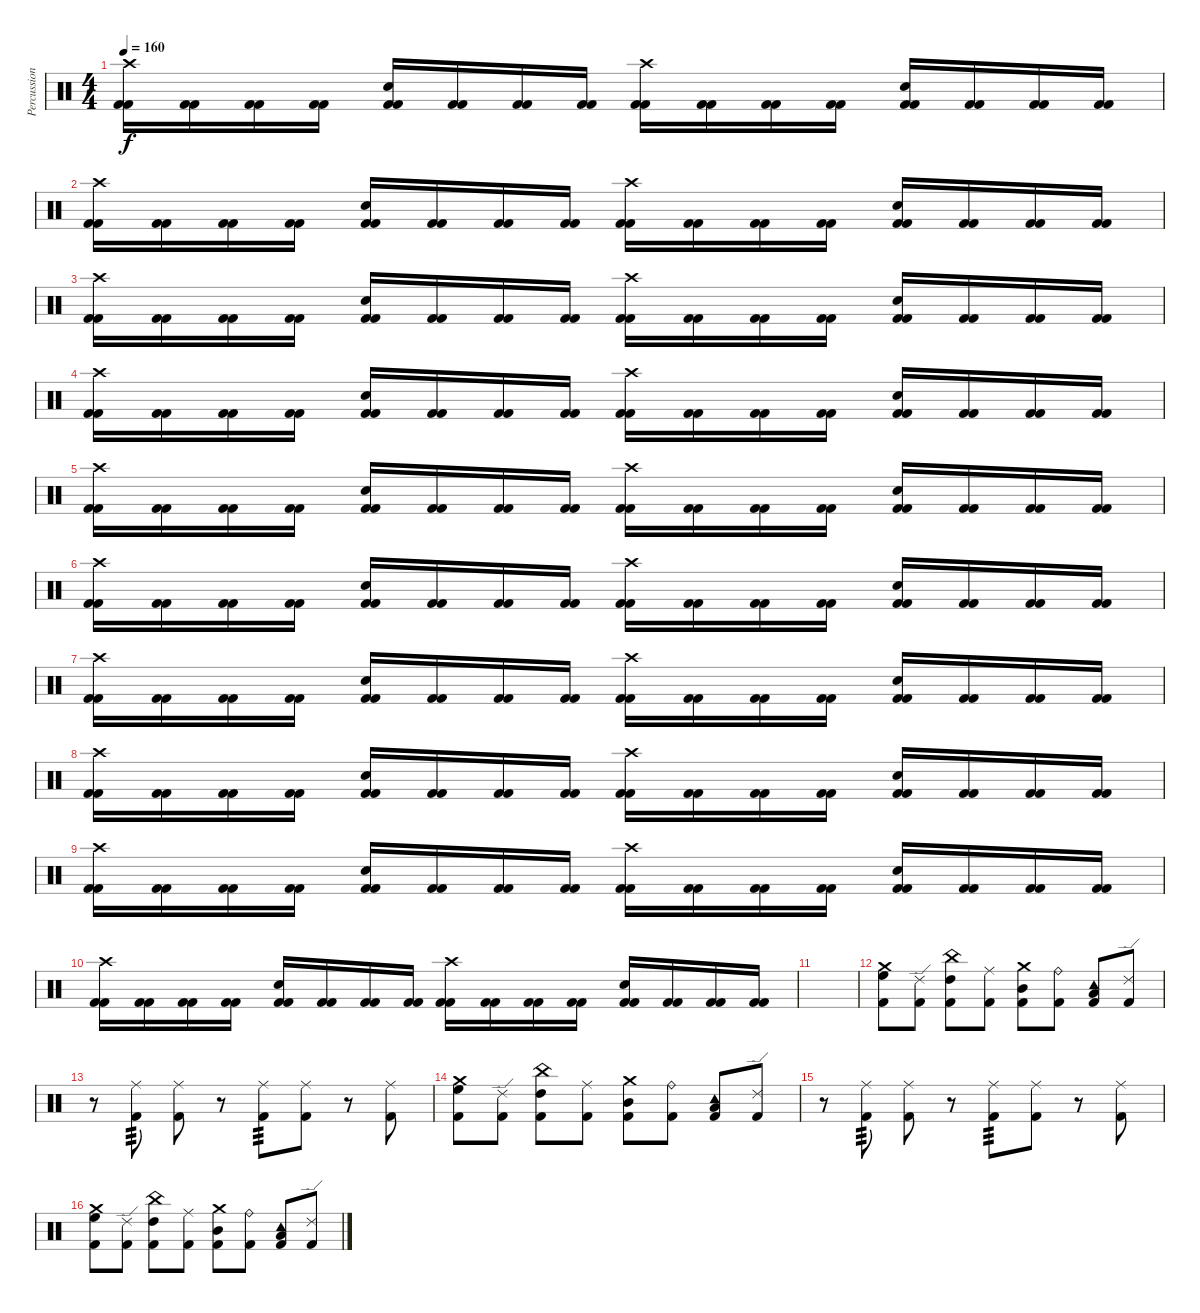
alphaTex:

\track ("Percussions" "Percussion") {instrument percussion}
\staff {score}
\articulation defaults
\ts (4 4)
\tempo 160
\clef neutral
\ks c
("Crash high (hit)" "Kick (hit) 2" "Kick (hit) 2").16{dy f} ("Kick (hit) 2" "Kick (hit) 2").16 ("Kick (hit) 2" "Kick (hit) 2").16 ("Kick (hit) 2" "Kick (hit) 2").16 ("Snare (hit) 2" "Kick (hit) 2" "Kick (hit) 2").16 ("Kick (hit) 2" "Kick (hit) 2").16 ("Kick (hit) 2" "Kick (hit) 2").16 ("Kick (hit) 2" "Kick (hit) 2").16 ("Crash high (hit)" "Kick (hit) 2" "Kick (hit) 2").16 ("Kick (hit) 2" "Kick (hit) 2").16 ("Kick (hit) 2" "Kick (hit) 2").16 ("Kick (hit) 2" "Kick (hit) 2").16 ("Snare (hit) 2" "Kick (hit) 2" "Kick (hit) 2").16 ("Kick (hit) 2" "Kick (hit) 2").16 ("Kick (hit) 2" "Kick (hit) 2").16 ("Kick (hit) 2" "Kick (hit) 2").16 |
("Crash high (hit)" "Kick (hit) 2" "Kick (hit) 2").16 ("Kick (hit) 2" "Kick (hit) 2").16 ("Kick (hit) 2" "Kick (hit) 2").16 ("Kick (hit) 2" "Kick (hit) 2").16 ("Snare (hit) 2" "Kick (hit) 2" "Kick (hit) 2").16 ("Kick (hit) 2" "Kick (hit) 2").16 ("Kick (hit) 2" "Kick (hit) 2").16 ("Kick (hit) 2" "Kick (hit) 2").16 ("Crash high (hit)" "Kick (hit) 2" "Kick (hit) 2").16 ("Kick (hit) 2" "Kick (hit) 2").16 ("Kick (hit) 2" "Kick (hit) 2").16 ("Kick (hit) 2" "Kick (hit) 2").16 ("Snare (hit) 2" "Kick (hit) 2" "Kick (hit) 2").16 ("Kick (hit) 2" "Kick (hit) 2").16 ("Kick (hit) 2" "Kick (hit) 2").16 ("Kick (hit) 2" "Kick (hit) 2").16 |
("Crash high (hit)" "Kick (hit) 2" "Kick (hit) 2").16 ("Kick (hit) 2" "Kick (hit) 2").16 ("Kick (hit) 2" "Kick (hit) 2").16 ("Kick (hit) 2" "Kick (hit) 2").16 ("Snare (hit) 2" "Kick (hit) 2" "Kick (hit) 2").16 ("Kick (hit) 2" "Kick (hit) 2").16 ("Kick (hit) 2" "Kick (hit) 2").16 ("Kick (hit) 2" "Kick (hit) 2").16 ("Crash high (hit)" "Kick (hit) 2" "Kick (hit) 2").16 ("Kick (hit) 2" "Kick (hit) 2").16 ("Kick (hit) 2" "Kick (hit) 2").16 ("Kick (hit) 2" "Kick (hit) 2").16 ("Snare (hit) 2" "Kick (hit) 2" "Kick (hit) 2").16 ("Kick (hit) 2" "Kick (hit) 2").16 ("Kick (hit) 2" "Kick (hit) 2").16 ("Kick (hit) 2" "Kick (hit) 2").16 |
("Crash high (hit)" "Kick (hit) 2" "Kick (hit) 2").16 ("Kick (hit) 2" "Kick (hit) 2").16 ("Kick (hit) 2" "Kick (hit) 2").16 ("Kick (hit) 2" "Kick (hit) 2").16 ("Snare (hit) 2" "Kick (hit) 2" "Kick (hit) 2").16 ("Kick (hit) 2" "Kick (hit) 2").16 ("Kick (hit) 2" "Kick (hit) 2").16 ("Kick (hit) 2" "Kick (hit) 2").16 ("Crash high (hit)" "Kick (hit) 2" "Kick (hit) 2").16 ("Kick (hit) 2" "Kick (hit) 2").16 ("Kick (hit) 2" "Kick (hit) 2").16 ("Kick (hit) 2" "Kick (hit) 2").16 ("Snare (hit) 2" "Kick (hit) 2" "Kick (hit) 2").16 ("Kick (hit) 2" "Kick (hit) 2").16 ("Kick (hit) 2" "Kick (hit) 2").16 ("Kick (hit) 2" "Kick (hit) 2").16 |
("Crash high (hit)" "Kick (hit) 2" "Kick (hit) 2").16 ("Kick (hit) 2" "Kick (hit) 2").16 ("Kick (hit) 2" "Kick (hit) 2").16 ("Kick (hit) 2" "Kick (hit) 2").16 ("Snare (hit) 2" "Kick (hit) 2" "Kick (hit) 2").16 ("Kick (hit) 2" "Kick (hit) 2").16 ("Kick (hit) 2" "Kick (hit) 2").16 ("Kick (hit) 2" "Kick (hit) 2").16 ("Crash high (hit)" "Kick (hit) 2" "Kick (hit) 2").16 ("Kick (hit) 2" "Kick (hit) 2").16 ("Kick (hit) 2" "Kick (hit) 2").16 ("Kick (hit) 2" "Kick (hit) 2").16 ("Snare (hit) 2" "Kick (hit) 2" "Kick (hit) 2").16 ("Kick (hit) 2" "Kick (hit) 2").16 ("Kick (hit) 2" "Kick (hit) 2").16 ("Kick (hit) 2" "Kick (hit) 2").16 |
("Crash high (hit)" "Kick (hit) 2" "Kick (hit) 2").16 ("Kick (hit) 2" "Kick (hit) 2").16 ("Kick (hit) 2" "Kick (hit) 2").16 ("Kick (hit) 2" "Kick (hit) 2").16 ("Snare (hit) 2" "Kick (hit) 2" "Kick (hit) 2").16 ("Kick (hit) 2" "Kick (hit) 2").16 ("Kick (hit) 2" "Kick (hit) 2").16 ("Kick (hit) 2" "Kick (hit) 2").16 ("Crash high (hit)" "Kick (hit) 2" "Kick (hit) 2").16 ("Kick (hit) 2" "Kick (hit) 2").16 ("Kick (hit) 2" "Kick (hit) 2").16 ("Kick (hit) 2" "Kick (hit) 2").16 ("Snare (hit) 2" "Kick (hit) 2" "Kick (hit) 2").16 ("Kick (hit) 2" "Kick (hit) 2").16 ("Kick (hit) 2" "Kick (hit) 2").16 ("Kick (hit) 2" "Kick (hit) 2").16 |
("Crash high (hit)" "Kick (hit) 2" "Kick (hit) 2").16 ("Kick (hit) 2" "Kick (hit) 2").16 ("Kick (hit) 2" "Kick (hit) 2").16 ("Kick (hit) 2" "Kick (hit) 2").16 ("Snare (hit) 2" "Kick (hit) 2" "Kick (hit) 2").16 ("Kick (hit) 2" "Kick (hit) 2").16 ("Kick (hit) 2" "Kick (hit) 2").16 ("Kick (hit) 2" "Kick (hit) 2").16 ("Crash high (hit)" "Kick (hit) 2" "Kick (hit) 2").16 ("Kick (hit) 2" "Kick (hit) 2").16 ("Kick (hit) 2" "Kick (hit) 2").16 ("Kick (hit) 2" "Kick (hit) 2").16 ("Snare (hit) 2" "Kick (hit) 2" "Kick (hit) 2").16 ("Kick (hit) 2" "Kick (hit) 2").16 ("Kick (hit) 2" "Kick (hit) 2").16 ("Kick (hit) 2" "Kick (hit) 2").16 |
("Crash high (hit)" "Kick (hit) 2" "Kick (hit) 2").16 ("Kick (hit) 2" "Kick (hit) 2").16 ("Kick (hit) 2" "Kick (hit) 2").16 ("Kick (hit) 2" "Kick (hit) 2").16 ("Snare (hit) 2" "Kick (hit) 2" "Kick (hit) 2").16 ("Kick (hit) 2" "Kick (hit) 2").16 ("Kick (hit) 2" "Kick (hit) 2").16 ("Kick (hit) 2" "Kick (hit) 2").16 ("Crash high (hit)" "Kick (hit) 2" "Kick (hit) 2").16 ("Kick (hit) 2" "Kick (hit) 2").16 ("Kick (hit) 2" "Kick (hit) 2").16 ("Kick (hit) 2" "Kick (hit) 2").16 ("Snare (hit) 2" "Kick (hit) 2" "Kick (hit) 2").16 ("Kick (hit) 2" "Kick (hit) 2").16 ("Kick (hit) 2" "Kick (hit) 2").16 ("Kick (hit) 2" "Kick (hit) 2").16 |
("Crash high (hit)" "Kick (hit) 2" "Kick (hit) 2").16 ("Kick (hit) 2" "Kick (hit) 2").16 ("Kick (hit) 2" "Kick (hit) 2").16 ("Kick (hit) 2" "Kick (hit) 2").16 ("Snare (hit) 2" "Kick (hit) 2" "Kick (hit) 2").16 ("Kick (hit) 2" "Kick (hit) 2").16 ("Kick (hit) 2" "Kick (hit) 2").16 ("Kick (hit) 2" "Kick (hit) 2").16 ("Crash high (hit)" "Kick (hit) 2" "Kick (hit) 2").16 ("Kick (hit) 2" "Kick (hit) 2").16 ("Kick (hit) 2" "Kick (hit) 2").16 ("Kick (hit) 2" "Kick (hit) 2").16 ("Snare (hit) 2" "Kick (hit) 2" "Kick (hit) 2").16 ("Kick (hit) 2" "Kick (hit) 2").16 ("Kick (hit) 2" "Kick (hit) 2").16 ("Kick (hit) 2" "Kick (hit) 2").16 |
("Crash high (hit)" "Kick (hit) 2" "Kick (hit) 2").16 ("Kick (hit) 2" "Kick (hit) 2").16 ("Kick (hit) 2" "Kick (hit) 2").16 ("Kick (hit) 2" "Kick (hit) 2").16 ("Snare (hit) 2" "Kick (hit) 2" "Kick (hit) 2").16 ("Kick (hit) 2" "Kick (hit) 2").16 ("Kick (hit) 2" "Kick (hit) 2").16 ("Kick (hit) 2" "Kick (hit) 2").16 ("Crash high (hit)" "Kick (hit) 2" "Kick (hit) 2").16 ("Kick (hit) 2" "Kick (hit) 2").16 ("Kick (hit) 2" "Kick (hit) 2").16 ("Kick (hit) 2" "Kick (hit) 2").16 ("Snare (hit) 2" "Kick (hit) 2" "Kick (hit) 2").16 ("Kick (hit) 2" "Kick (hit) 2").16 ("Kick (hit) 2" "Kick (hit) 2").16 ("Kick (hit) 2" "Kick (hit) 2").16 |
|
("High Floor Tom (hit)" "Crash medium (hit)" "Kick (hit) 2").8 ("Ride (edge) 2" "Kick (hit) 2").8 ("High Tom (hit)" "China (hit)" "Kick (hit) 2").8 ("Ride (middle)" "Kick (hit) 2").8 ("Mid Tom (hit)" "Crash medium (hit)" "Kick (hit) 2").8 ("Ride (bell)" "Kick (hit) 2").8 ("Low Tom (hit)" "Tambourine (hit)" "Kick (hit) 2").8 ("Ride (edge) 2" "Kick (hit) 2").8 |
r.8 ("Ride (middle)" "Kick (hit) 2").8{tp 3} ("Ride (middle)" "Kick (hit) 2").8 r.8 ("Ride (middle)" "Kick (hit) 2").8{tp 3} ("Ride (middle)" "Kick (hit) 2").8 r.8 ("Ride (middle)" "Kick (hit) 2").8 |
("High Floor Tom (hit)" "Crash medium (hit)" "Kick (hit) 2").8 ("Ride (edge) 2" "Kick (hit) 2").8 ("High Tom (hit)" "China (hit)" "Kick (hit) 2").8 ("Ride (middle)" "Kick (hit) 2").8 ("Mid Tom (hit)" "Crash medium (hit)" "Kick (hit) 2").8 ("Ride (bell)" "Kick (hit) 2").8 ("Low Tom (hit)" "Tambourine (hit)" "Kick (hit) 2").8 ("Ride (edge) 2" "Kick (hit) 2").8 |
r.8 ("Ride (middle)" "Kick (hit) 2").8{tp 3} ("Ride (middle)" "Kick (hit) 2").8 r.8 ("Ride (middle)" "Kick (hit) 2").8{tp 3} ("Ride (middle)" "Kick (hit) 2").8 r.8 ("Ride (middle)" "Kick (hit) 2").8 |
("High Floor Tom (hit)" "Crash medium (hit)" "Kick (hit) 2").8 ("Ride (edge) 2" "Kick (hit) 2").8 ("High Tom (hit)" "China (hit)" "Kick (hit) 2").8 ("Ride (middle)" "Kick (hit) 2").8 ("Mid Tom (hit)" "Crash medium (hit)" "Kick (hit) 2").8 ("Ride (bell)" "Kick (hit) 2").8 ("Low Tom (hit)" "Tambourine (hit)" "Kick (hit) 2").8 ("Ride (edge) 2" "Kick (hit) 2").8
